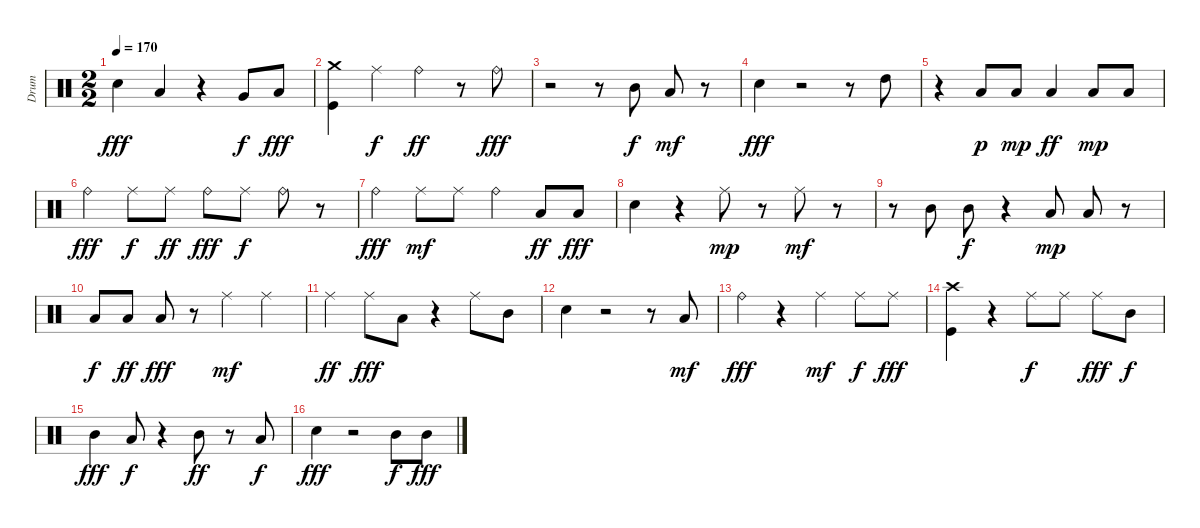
\track ("Drum" "Drum") {instrument percussion}
\staff {score}
\articulation defaults
\ts (2 2)
\tempo 170
\clef neutral
\ks c "Electric Snare (hit)".4{dy fff} "Low Tom (hit)".4
r.4 "Very Low Tom (hit)".8{dy f} "Low Floor Tom (hit)".8{dy fff} |
("Crash medium (hit)" "Kick (hit)").4 "Ride (middle)".4{dy f} "Ride (bell)".4{dy ff} r.8 "Ride (bell)".8{dy fff} |
r.2 r.8 "Mid Tom (hit)".8{dy f} "Low Tom (hit)".8{dy mf} r.8 |
"Electric Snare (hit)".4{dy fff} r.2 r.8 "High Tom (hit)".8 |
r.4 "Low Tom (hit)".8{dy p} "Low Tom (hit)".8{dy mp} "Low Tom (hit)".4{dy ff} "Low Floor Tom (hit)".8{dy mp} "Low Floor Tom (hit)".8 |
"Ride (bell)".4{dy fff} "Ride (middle)".8{dy f} "Ride (middle)".8{dy ff} "Ride (bell)".8{dy fff} "Ride (middle)".8{dy f} "Ride (bell)".8 r.8 |
"Ride (bell)".4{dy fff} "Ride (middle)".8{dy mf} "Ride (middle)".8 "Ride (bell)".4 "Low Tom (hit)".8{dy ff} "Low Floor Tom (hit)".8{dy fff} |
"Electric Snare (hit)".4 r.4 "Ride (middle)".8{dy mp} r.8 "Ride (middle)".8{dy mf} r.8 |
r.8 "Mid Tom (hit)".8 "Mid Tom (hit)".8{dy f} r.4 "Low Floor Tom (hit)".8{dy mp} "Low Floor Tom (hit)".8 r.8 |
"Low Floor Tom (hit)".8{dy f} "Low Floor Tom (hit)".8{dy ff} "Low Floor Tom (hit)".8{dy fff} r.8 "Ride (middle)".4{dy mf} "Ride (middle)".4 |
"Ride (middle)".4{dy ff} "Ride (middle)".8{dy fff} "Low Floor Tom (hit)".8 r.4 "Ride (middle)".8 "Mid Tom (hit)".8 |
"Electric Snare (hit)".4 r.2 r.8 "Low Floor Tom (hit)".8{dy mf} |
"Ride (bell)".4{dy fff} r.4 "Ride (middle)".4{dy mf} "Ride (middle)".8{dy f} "Ride (middle)".8{dy fff} |
("Kick (hit)" "Crash high (hit)").4 r.4 "Ride (middle)".8{dy f} "Ride (middle)".8 "Ride (middle)".8{dy fff} "Mid Tom (hit)".8{dy f} |
"Mid Tom (hit)".4{dy fff} "Low Floor Tom (hit)".8{dy f} r.4 "Mid Tom (hit)".8{dy ff} r.8 "Low Floor Tom (hit)".8{dy f} |
"Electric Snare (hit)".4{dy fff} r.2 "Mid Tom (hit)".8{dy f} "Mid Tom (hit)".8{dy fff}
